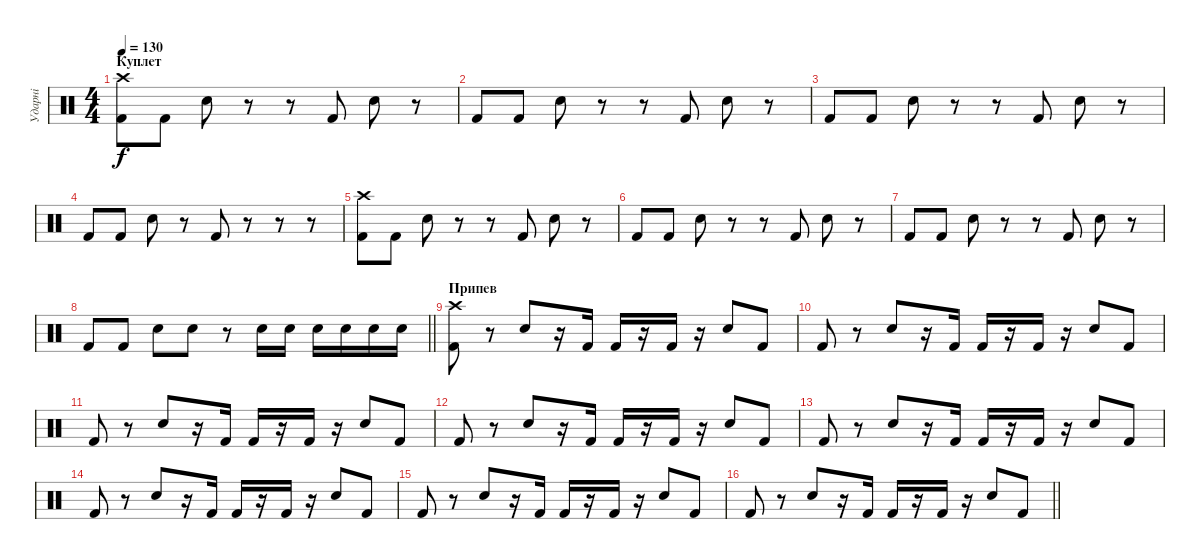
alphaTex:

\track ("Ударні" "Ударні") {instrument percussion}
\staff {score}
\articulation defaults
\ts (4 4)
\section ("" "Куплет")
\tempo 130
\clef neutral
\ks c
("Kick (hit) 2" "Crash high (hit)").8{dy f} "Kick (hit) 2".8 "Snare (hit) 2".8 r.8 r.8 "Kick (hit) 2".8 "Snare (hit) 2".8 r.8 |
"Kick (hit) 2".8 "Kick (hit) 2".8 "Snare (hit) 2".8 r.8 r.8 "Kick (hit) 2".8 "Snare (hit) 2".8 r.8 |
"Kick (hit) 2".8 "Kick (hit) 2".8 "Snare (hit) 2".8 r.8 r.8 "Kick (hit) 2".8 "Snare (hit) 2".8 r.8 |
"Kick (hit) 2".8 "Kick (hit) 2".8 "Snare (hit) 2".8 r.8 "Kick (hit) 2".8 r.8 r.8 r.8 |
("Kick (hit) 2" "Crash high (hit)").8 "Kick (hit) 2".8 "Snare (hit) 2".8 r.8 r.8 "Kick (hit) 2".8 "Snare (hit) 2".8 r.8 |
"Kick (hit) 2".8 "Kick (hit) 2".8 "Snare (hit) 2".8 r.8 r.8 "Kick (hit) 2".8 "Snare (hit) 2".8 r.8 |
"Kick (hit) 2".8 "Kick (hit) 2".8 "Snare (hit) 2".8 r.8 r.8 "Kick (hit) 2".8 "Snare (hit) 2".8 r.8 |
\barLineRight lightlight "Kick (hit) 2".8 "Kick (hit) 2".8 "Snare (hit) 2".8 "Snare (hit) 2".8
r.8 "Snare (hit) 2".16 "Snare (hit) 2".16 "Snare (hit) 2".16 "Snare (hit) 2".16 "Snare (hit) 2".16 "Snare (hit) 2".16 |
\section ("" "Припев")
("Kick (hit) 2" "Crash high (hit)").8 r.8 "Snare (hit) 2".8 r.16 "Kick (hit) 2".16 "Kick (hit) 2".16 r.16 "Kick (hit) 2".16 r.16 "Snare (hit) 2".8 "Kick (hit) 2".8 |
"Kick (hit) 2".8 r.8 "Snare (hit) 2".8 r.16 "Kick (hit) 2".16 "Kick (hit) 2".16 r.16 "Kick (hit) 2".16 r.16 "Snare (hit) 2".8 "Kick (hit) 2".8 |
"Kick (hit) 2".8 r.8 "Snare (hit) 2".8 r.16 "Kick (hit) 2".16 "Kick (hit) 2".16 r.16 "Kick (hit) 2".16 r.16 "Snare (hit) 2".8 "Kick (hit) 2".8 |
"Kick (hit) 2".8 r.8 "Snare (hit) 2".8 r.16 "Kick (hit) 2".16 "Kick (hit) 2".16 r.16 "Kick (hit) 2".16 r.16 "Snare (hit) 2".8 "Kick (hit) 2".8 |
"Kick (hit) 2".8 r.8 "Snare (hit) 2".8 r.16 "Kick (hit) 2".16 "Kick (hit) 2".16 r.16 "Kick (hit) 2".16 r.16 "Snare (hit) 2".8 "Kick (hit) 2".8 |
"Kick (hit) 2".8 r.8 "Snare (hit) 2".8 r.16 "Kick (hit) 2".16 "Kick (hit) 2".16 r.16 "Kick (hit) 2".16 r.16 "Snare (hit) 2".8 "Kick (hit) 2".8 |
"Kick (hit) 2".8 r.8 "Snare (hit) 2".8 r.16 "Kick (hit) 2".16 "Kick (hit) 2".16 r.16 "Kick (hit) 2".16 r.16 "Snare (hit) 2".8 "Kick (hit) 2".8 |
\barLineRight lightlight "Kick (hit) 2".8
r.8 "Snare (hit) 2".8 r.16 "Kick (hit) 2".16 "Kick (hit) 2".16 r.16 "Kick (hit) 2".16 r.16 "Snare (hit) 2".8 "Kick (hit) 2".8
